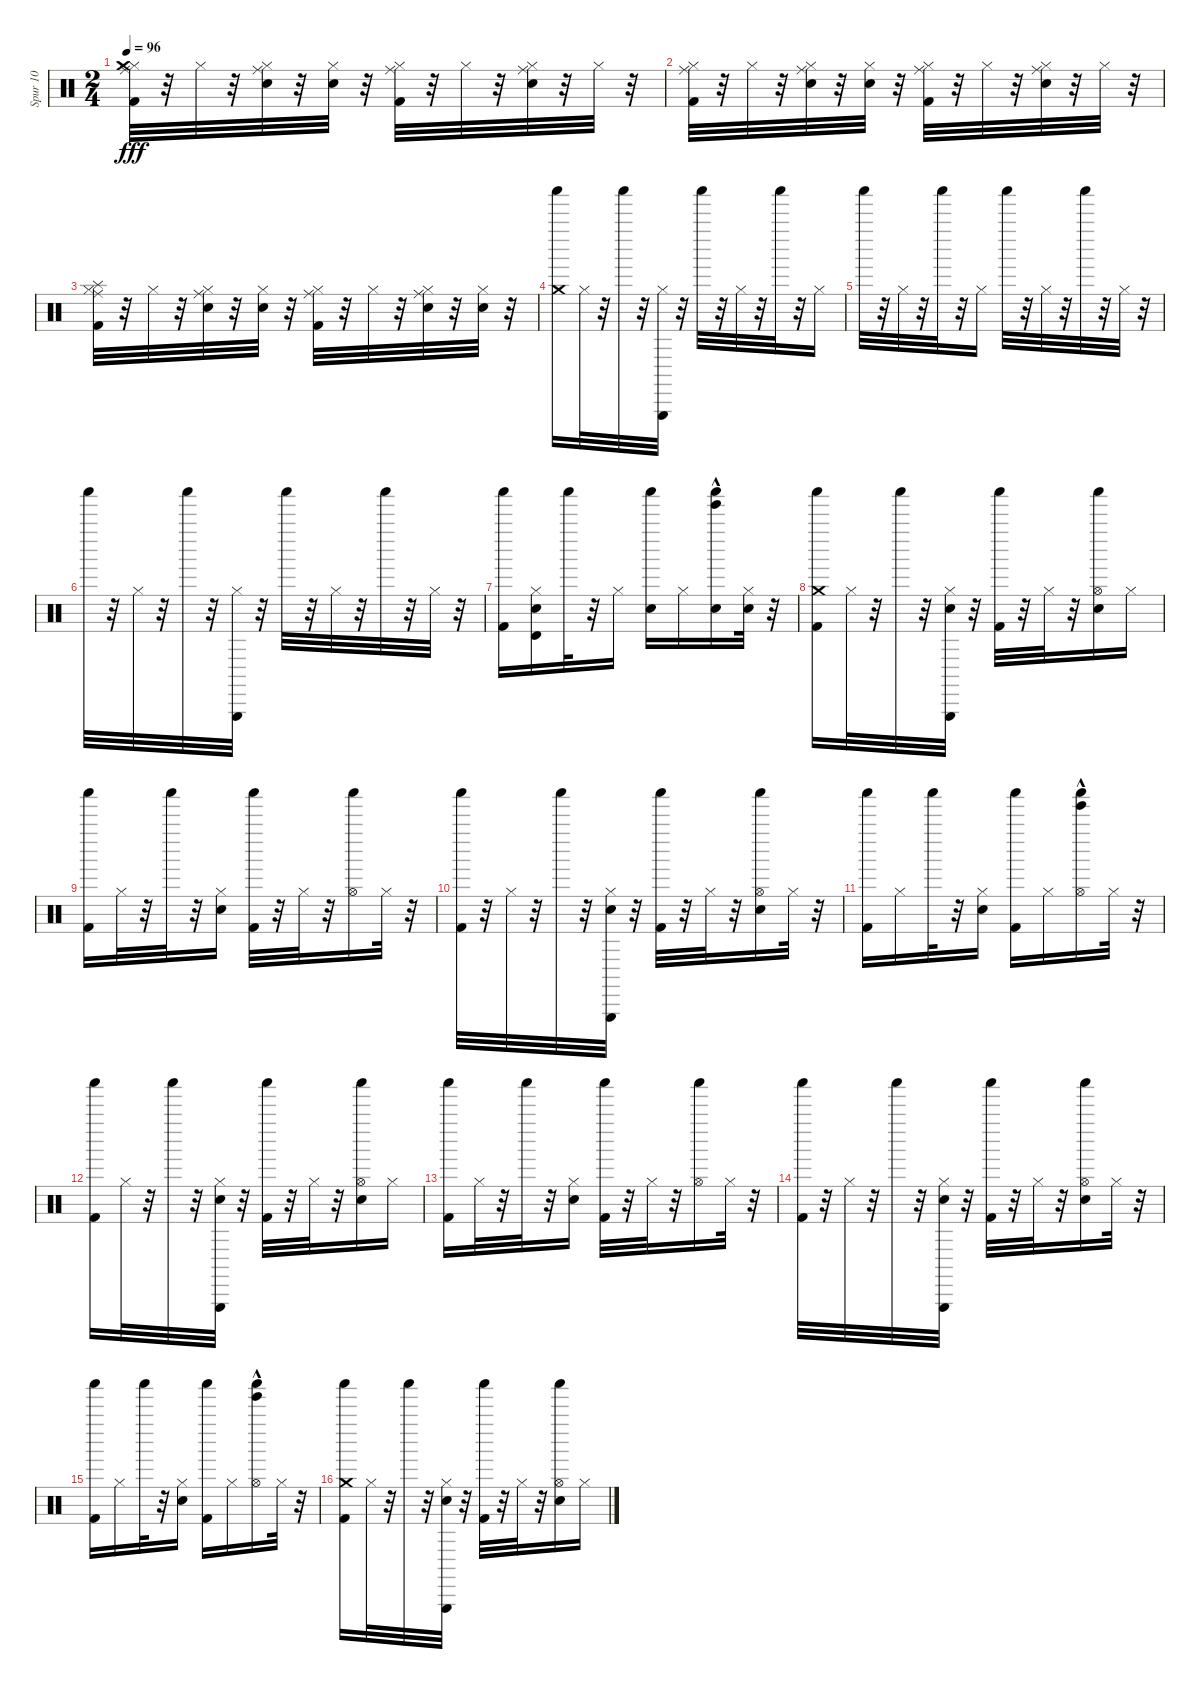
\track ("Spur 10" "Spur 10") {instrument percussion}
\staff {score}
\articulation defaults
\ts (2 4)
\tempo 96
\clef neutral
\ks c
("Hi-Hat (closed)" "Crash medium (hit)" "Kick (hit) 2" "Ride (middle)").32{dy fff} r.32 "Hi-Hat (closed)".32 r.32 ("Hi-Hat (closed)" "Ride (middle)" "Electric Snare (hit)").32 r.32 ("Hi-Hat (closed)" "Electric Snare (hit)").32 r.32 ("Hi-Hat (closed)" "Kick (hit) 2" "Ride (middle)").32 r.32 "Hi-Hat (closed)".32 r.32 ("Hi-Hat (closed)" "Ride (middle)" "Electric Snare (hit)").32 r.32 "Hi-Hat (closed)".32 r.32 |
("Hi-Hat (closed)" "Kick (hit) 2" "Ride (middle)").32 r.32 "Hi-Hat (closed)".32 r.32 ("Hi-Hat (closed)" "Ride (middle)" "Electric Snare (hit)").32 r.32 ("Hi-Hat (closed)" "Electric Snare (hit)").32 r.32 ("Hi-Hat (closed)" "Kick (hit) 2" "Ride (middle)").32 r.32 "Hi-Hat (closed)".32 r.32 ("Hi-Hat (closed)" "Ride (middle)" "Electric Snare (hit)").32 r.32 "Hi-Hat (closed)".32 r.32 |
("Hi-Hat (closed)" "Splash (hit)" "Ride (middle)" "Kick (hit) 2").32 r.32 "Hi-Hat (closed)".32 r.32 ("Hi-Hat (closed)" "Ride (middle)" "Electric Snare (hit)").32 r.32 ("Hi-Hat (closed)" "Electric Snare (hit)").32 r.32 ("Hi-Hat (closed)" "Ride (middle)" "Kick (hit) 2").32 r.32 "Hi-Hat (closed)".32 r.32 ("Hi-Hat (closed)" "Ride (middle)" "Electric Snare (hit)").32 r.32 ("Hi-Hat (closed)" "Electric Snare (hit)").32 r.32 |
("Shaker (hit)" "Crash medium (hit)").16 "Hi-Hat (closed)".32 r.32 "Shaker (hit)".32 r.32 ("Hi-Hat (closed)" "Triangle (hit)").32 r.32 "Shaker (hit)".32 r.32 "Hi-Hat (closed)".32 r.32 "Shaker (hit)".32 r.32 "Hi-Hat (closed)".16 |
"Shaker (hit)".32 r.32 "Hi-Hat (closed)".32 r.32 "Shaker (hit)".32 r.32 "Hi-Hat (closed)".16 "Shaker (hit)".32 r.32 "Hi-Hat (closed)".32 r.32 "Shaker (hit)".32 r.32 "Hi-Hat (closed)".32 r.32 |
"Shaker (hit)".32 r.32 "Hi-Hat (closed)".32 r.32 "Shaker (hit)".32 r.32 ("Hi-Hat (closed)" "Triangle (hit)").32 r.32 "Shaker (hit)".32 r.32 "Hi-Hat (closed)".32 r.32 "Shaker (hit)".32 r.32 "Hi-Hat (closed)".32 r.32 |
("Shaker (hit)" "Kick (hit) 2").16 ("Hi-Hat (closed)" "Timbale high (hit)" "Electric Snare (hit)").16 "Shaker (hit)".32 r.32 "Hi-Hat (closed)".16 ("Shaker (hit)" "Electric Snare (hit)").16 "Hi-Hat (closed)".16 ("Tinkle Bell (hit)"{hac} "Shaker (hit)" "Electric Snare (hit)").16 ("Hi-Hat (closed)" "Electric Snare (hit)").32 r.32 |
("Shaker (hit)" "Crash medium (hit)" "Kick (hit) 2").16 "Hi-Hat (closed)".32 r.32 "Shaker (hit)".32 r.32 ("Hi-Hat (closed)" "Triangle (hit)" "Electric Snare (hit)").32 r.32 ("Shaker (hit)" "Kick (hit) 2").32 r.32 "Hi-Hat (closed)".32 r.32 ("Shaker (hit)" "Hi-Hat (open)" "Electric Snare (hit)").16 "Hi-Hat (closed)".16 |
("Shaker (hit)" "Kick (hit) 2").16 "Hi-Hat (closed)".32 r.32 "Shaker (hit)".32 r.32 ("Hi-Hat (closed)" "Electric Snare (hit)").16 ("Shaker (hit)" "Kick (hit) 2").32 r.32 "Hi-Hat (closed)".32 r.32 ("Shaker (hit)" "Hi-Hat (open)").16 "Hi-Hat (closed)".32 r.32 |
("Shaker (hit)" "Kick (hit) 2").32 r.32 "Hi-Hat (closed)".32 r.32 "Shaker (hit)".32 r.32 ("Hi-Hat (closed)" "Triangle (hit)" "Electric Snare (hit)").32 r.32 ("Shaker (hit)" "Kick (hit) 2").32 r.32 "Hi-Hat (closed)".32 r.32 ("Shaker (hit)" "Electric Snare (hit)" "Hi-Hat (open)").16 "Hi-Hat (closed)".32 r.32 |
("Shaker (hit)" "Kick (hit) 2").16 "Hi-Hat (closed)".16 "Shaker (hit)".32 r.32 ("Hi-Hat (closed)" "Electric Snare (hit)").16 ("Shaker (hit)" "Kick (hit) 2").16 "Hi-Hat (closed)".16 ("Tinkle Bell (hit)"{hac} "Shaker (hit)" "Hi-Hat (open)").16 "Hi-Hat (closed)".32 r.32 |
("Shaker (hit)" "Kick (hit) 2").16 "Hi-Hat (closed)".32 r.32 "Shaker (hit)".32 r.32 ("Hi-Hat (closed)" "Triangle (hit)" "Electric Snare (hit)").32 r.32 ("Shaker (hit)" "Kick (hit) 2").32 r.32 "Hi-Hat (closed)".32 r.32 ("Shaker (hit)" "Hi-Hat (open)" "Electric Snare (hit)").16 "Hi-Hat (closed)".16 |
("Shaker (hit)" "Kick (hit) 2").16 "Hi-Hat (closed)".32 r.32 "Shaker (hit)".32 r.32 ("Hi-Hat (closed)" "Electric Snare (hit)").16 ("Shaker (hit)" "Kick (hit) 2").32 r.32 "Hi-Hat (closed)".32 r.32 ("Shaker (hit)" "Hi-Hat (open)").16 "Hi-Hat (closed)".32 r.32 |
("Shaker (hit)" "Kick (hit) 2").32 r.32 "Hi-Hat (closed)".32 r.32 "Shaker (hit)".32 r.32 ("Hi-Hat (closed)" "Triangle (hit)" "Electric Snare (hit)").32 r.32 ("Shaker (hit)" "Kick (hit) 2").32 r.32 "Hi-Hat (closed)".32 r.32 ("Shaker (hit)" "Electric Snare (hit)" "Hi-Hat (open)").16 "Hi-Hat (closed)".32 r.32 |
("Shaker (hit)" "Kick (hit) 2").16 "Hi-Hat (closed)".16 "Shaker (hit)".32 r.32 ("Hi-Hat (closed)" "Electric Snare (hit)").16 ("Shaker (hit)" "Kick (hit) 2").16 "Hi-Hat (closed)".16 ("Tinkle Bell (hit)"{hac} "Shaker (hit)" "Hi-Hat (open)").16 "Hi-Hat (closed)".32 r.32 |
("Shaker (hit)" "Crash medium (hit)" "Kick (hit) 2").16 "Hi-Hat (closed)".32 r.32 "Shaker (hit)".32 r.32 ("Hi-Hat (closed)" "Triangle (hit)" "Electric Snare (hit)").32 r.32 ("Shaker (hit)" "Kick (hit) 2").32 r.32 "Hi-Hat (closed)".32 r.32 ("Shaker (hit)" "Hi-Hat (open)" "Electric Snare (hit)").16 "Hi-Hat (closed)".16
